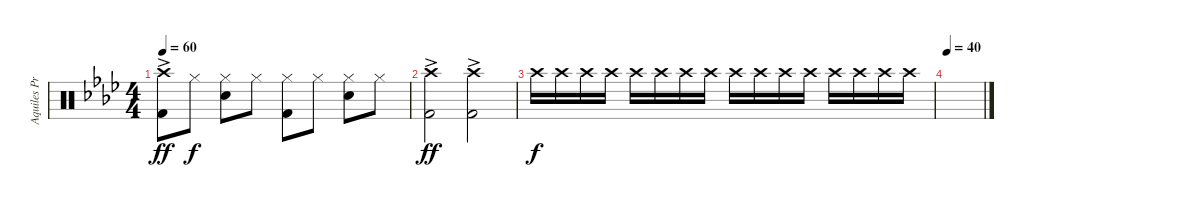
\track ("Aquiles Priester" "Aquiles Pr") {instrument percussion}
\staff {score}
\articulation defaults
\ts (4 4)
\tempo 60
\clef neutral
\ks ab
("Crash high (hit)"{ac} "Kick (hit) 2"{ac}).8{dy ff} "Hi-Hat (closed)".8{dy f} ("Hi-Hat (closed)" "Electric Snare (hit)").8 "Hi-Hat (closed)".8 ("Hi-Hat (closed)" "Kick (hit) 2").8 "Hi-Hat (closed)".8 ("Hi-Hat (closed)" "Electric Snare (hit)").8 "Hi-Hat (closed)".8 |
("Crash high (hit)"{ac} "Kick (hit) 2"{ac}).2{dy ff} ("Crash high (hit)"{ac} "Kick (hit) 2"{ac}).2 |
"Crash high (hit)".16{dy f volume 0} "Crash high (hit)".16{volume 15} "Crash high (hit)".16 "Crash high (hit)".16 "Crash high (hit)".16 "Crash high (hit)".16 "Crash high (hit)".16 "Crash high (hit)".16 "Crash high (hit)".16{volume 0} "Crash high (hit)".16 "Crash high (hit)".16 "Crash high (hit)".16 "Crash high (hit)".16 "Crash high (hit)".16 "Crash high (hit)".16 "Crash high (hit)".16 |
\tempo 40
